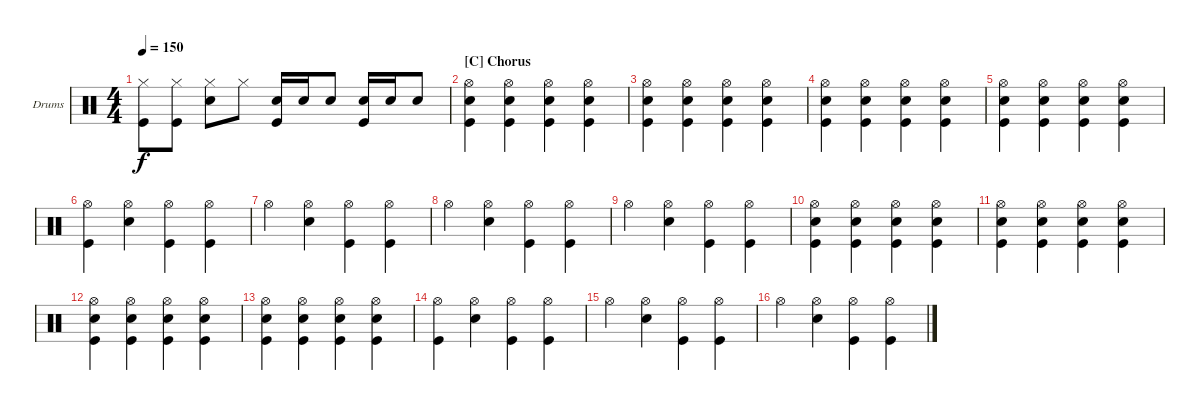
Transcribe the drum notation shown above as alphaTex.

\defaultSystemsLayout 4
\bracketExtendMode groupsimilarinstruments
\firstSystemTrackNameOrientation horizontal
\otherSystemsTrackNameOrientation horizontal
\track ("Drums" "Drums") {instrument percussion}
\staff {score}
\articulation defaults
\ts (4 4)
\tempo 150
\clef neutral
\scale
0.333333
\ks c
("Kick (hit)" "Hi-Hat (closed)").8{dy f} ("Kick (hit)" "Hi-Hat (closed)").8 ("Hi-Hat (closed)" "Snare (hit) 2").8 "Hi-Hat (closed)".8 ("Snare (hit) 2" "Kick (hit)").16 "Snare (hit) 2".16 "Snare (hit) 2".8 ("Snare (hit) 2" "Kick (hit)").16 "Snare (hit) 2".16 "Snare (hit) 2".8 |
\section ("C" "Chorus")
\scale
0.333333 ("Kick (hit)" "Hi-Hat (open)" "Snare (hit) 2").4 ("Kick (hit)" "Hi-Hat (open)" "Snare (hit) 2").4 ("Kick (hit)" "Hi-Hat (open)" "Snare (hit) 2").4 ("Kick (hit)" "Hi-Hat (open)" "Snare (hit) 2").4 |
\scale
0.333333 ("Kick (hit)" "Hi-Hat (open)" "Snare (hit) 2").4 ("Kick (hit)" "Hi-Hat (open)" "Snare (hit) 2").4 ("Kick (hit)" "Hi-Hat (open)" "Snare (hit) 2").4 ("Kick (hit)" "Hi-Hat (open)" "Snare (hit) 2").4 |
\scale
0.333333 ("Kick (hit)" "Hi-Hat (open)" "Snare (hit) 2").4 ("Kick (hit)" "Hi-Hat (open)" "Snare (hit) 2").4 ("Kick (hit)" "Hi-Hat (open)" "Snare (hit) 2").4 ("Kick (hit)" "Hi-Hat (open)" "Snare (hit) 2").4 |
\scale
0.333333 ("Kick (hit)" "Hi-Hat (open)" "Snare (hit) 2").4 ("Kick (hit)" "Hi-Hat (open)" "Snare (hit) 2").4 ("Kick (hit)" "Hi-Hat (open)" "Snare (hit) 2").4 ("Kick (hit)" "Hi-Hat (open)" "Snare (hit) 2").4 |
\scale
0.333333 ("Kick (hit)" "Hi-Hat (open)").4 ("Snare (hit) 2" "Hi-Hat (open)").4 ("Kick (hit)" "Hi-Hat (open)").4 ("Kick (hit)" "Hi-Hat (open)").4 |
\scale
0.333333 "Hi-Hat (open)".4 ("Snare (hit) 2" "Hi-Hat (open)").4 ("Kick (hit)" "Hi-Hat (open)").4 ("Kick (hit)" "Hi-Hat (open)").4 |
\scale
0.333333 "Hi-Hat (open)".4 ("Snare (hit) 2" "Hi-Hat (open)").4 ("Kick (hit)" "Hi-Hat (open)").4 ("Kick (hit)" "Hi-Hat (open)").4 |
\scale
0.333333 "Hi-Hat (open)".4 ("Snare (hit) 2" "Hi-Hat (open)").4 ("Kick (hit)" "Hi-Hat (open)").4 ("Kick (hit)" "Hi-Hat (open)").4 |
\scale
0.333333 ("Kick (hit)" "Hi-Hat (open)" "Snare (hit) 2").4 ("Kick (hit)" "Hi-Hat (open)" "Snare (hit) 2").4 ("Kick (hit)" "Hi-Hat (open)" "Snare (hit) 2").4 ("Kick (hit)" "Hi-Hat (open)" "Snare (hit) 2").4 |
\scale
0.333333 ("Kick (hit)" "Hi-Hat (open)" "Snare (hit) 2").4 ("Kick (hit)" "Hi-Hat (open)" "Snare (hit) 2").4 ("Kick (hit)" "Hi-Hat (open)" "Snare (hit) 2").4 ("Kick (hit)" "Hi-Hat (open)" "Snare (hit) 2").4 |
\scale
0.333333 ("Kick (hit)" "Hi-Hat (open)" "Snare (hit) 2").4 ("Kick (hit)" "Hi-Hat (open)" "Snare (hit) 2").4 ("Kick (hit)" "Hi-Hat (open)" "Snare (hit) 2").4 ("Kick (hit)" "Hi-Hat (open)" "Snare (hit) 2").4 |
\scale
0.333333 ("Kick (hit)" "Hi-Hat (open)" "Snare (hit) 2").4 ("Kick (hit)" "Hi-Hat (open)" "Snare (hit) 2").4 ("Kick (hit)" "Hi-Hat (open)" "Snare (hit) 2").4 ("Kick (hit)" "Hi-Hat (open)" "Snare (hit) 2").4 |
\scale
0.333333 ("Kick (hit)" "Hi-Hat (open)").4 ("Snare (hit) 2" "Hi-Hat (open)").4 ("Kick (hit)" "Hi-Hat (open)").4 ("Kick (hit)" "Hi-Hat (open)").4 |
\scale
0.333333 "Hi-Hat (open)".4 ("Snare (hit) 2" "Hi-Hat (open)").4 ("Kick (hit)" "Hi-Hat (open)").4 ("Kick (hit)" "Hi-Hat (open)").4 |
\scale
0.333333 "Hi-Hat (open)".4 ("Snare (hit) 2" "Hi-Hat (open)").4 ("Kick (hit)" "Hi-Hat (open)").4 ("Kick (hit)" "Hi-Hat (open)").4
